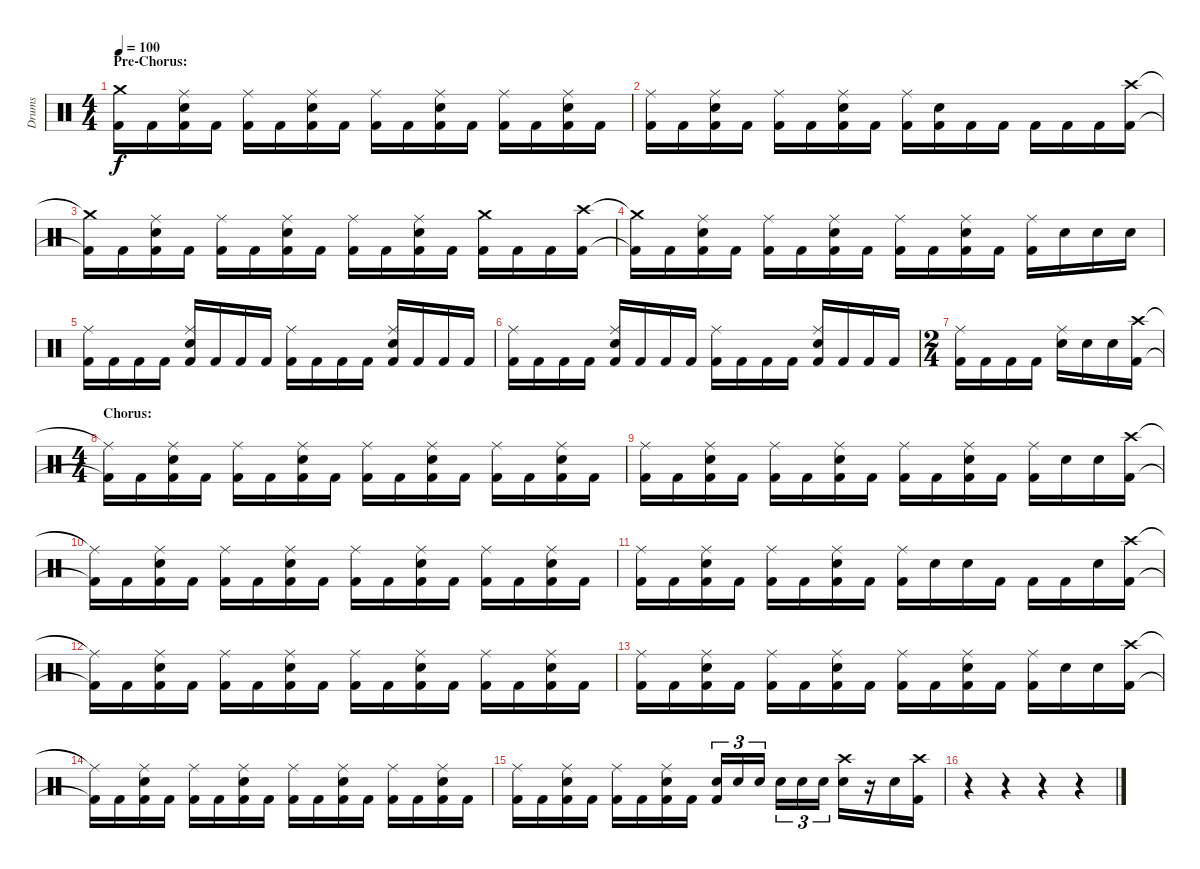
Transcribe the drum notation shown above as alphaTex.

\track ("Drums" "Drums") {instrument percussion}
\staff {score}
\articulation defaults
\ts (4 4)
\section ("" "Pre-Chorus:")
\tempo 100
\clef neutral
\ks c
("Crash medium (hit)" "Kick (hit) 2").16{dy f} "Kick (hit) 2".16 ("Ride (middle)" "Electric Snare (hit)" "Kick (hit) 2").16 "Kick (hit) 2".16 ("Ride (middle)" "Kick (hit) 2").16 "Kick (hit) 2".16 ("Ride (middle)" "Electric Snare (hit)" "Kick (hit) 2").16 "Kick (hit) 2".16 ("Ride (middle)" "Kick (hit) 2").16 "Kick (hit) 2".16 ("Ride (middle)" "Electric Snare (hit)" "Kick (hit) 2").16 "Kick (hit) 2".16 ("Ride (middle)" "Kick (hit) 2").16 "Kick (hit) 2".16 ("Ride (middle)" "Electric Snare (hit)" "Kick (hit) 2").16 "Kick (hit) 2".16 |
("Ride (middle)" "Kick (hit) 2").16 "Kick (hit) 2".16 ("Ride (middle)" "Electric Snare (hit)" "Kick (hit) 2").16 "Kick (hit) 2".16 ("Ride (middle)" "Kick (hit) 2").16 "Kick (hit) 2".16 ("Ride (middle)" "Electric Snare (hit)" "Kick (hit) 2").16 "Kick (hit) 2".16 ("Ride (middle)" "Kick (hit) 2").16 ("Electric Snare (hit)" "Kick (hit) 2").16 "Kick (hit) 2".16 "Kick (hit) 2".16 "Kick (hit) 2".16 "Kick (hit) 2".16 "Kick (hit) 2".16 ("Crash high (hit)" "Kick (hit) 2").16 |
("Crash medium (hit)"{t} "Kick (hit) 2"{t}).16 "Kick (hit) 2".16 ("Ride (middle)" "Electric Snare (hit)" "Kick (hit) 2").16 "Kick (hit) 2".16 ("Ride (middle)" "Kick (hit) 2").16 "Kick (hit) 2".16 ("Ride (middle)" "Electric Snare (hit)" "Kick (hit) 2").16 "Kick (hit) 2".16 ("Ride (middle)" "Kick (hit) 2").16 "Kick (hit) 2".16 ("Ride (middle)" "Electric Snare (hit)" "Kick (hit) 2").16 "Kick (hit) 2".16 ("Crash medium (hit)" "Kick (hit) 2").16 "Kick (hit) 2".16 "Kick (hit) 2".16 ("Crash high (hit)" "Kick (hit) 2").16 |
("Crash medium (hit)"{t} "Kick (hit) 2"{t}).16 "Kick (hit) 2".16 ("Ride (middle)" "Electric Snare (hit)" "Kick (hit) 2").16 "Kick (hit) 2".16 ("Ride (middle)" "Kick (hit) 2").16 "Kick (hit) 2".16 ("Ride (middle)" "Electric Snare (hit)" "Kick (hit) 2").16 "Kick (hit) 2".16 ("Ride (middle)" "Kick (hit) 2").16 "Kick (hit) 2".16 ("Ride (middle)" "Electric Snare (hit)" "Kick (hit) 2").16 "Kick (hit) 2".16 ("Ride (middle)" "Kick (hit) 2").16 "Electric Snare (hit)".16 "Electric Snare (hit)".16 "Electric Snare (hit)".16 |
("Ride (middle)" "Kick (hit) 2").16 "Kick (hit) 2".16 "Kick (hit) 2".16 "Kick (hit) 2".16 ("Ride (middle)" "Electric Snare (hit)" "Kick (hit) 2").16 "Kick (hit) 2".16 "Kick (hit) 2".16 "Kick (hit) 2".16 ("Ride (middle)" "Kick (hit) 2").16 "Kick (hit) 2".16 "Kick (hit) 2".16 "Kick (hit) 2".16 ("Ride (middle)" "Electric Snare (hit)" "Kick (hit) 2").16 "Kick (hit) 2".16 "Kick (hit) 2".16 "Kick (hit) 2".16 |
("Ride (middle)" "Kick (hit) 2").16 "Kick (hit) 2".16 "Kick (hit) 2".16 "Kick (hit) 2".16 ("Ride (middle)" "Electric Snare (hit)" "Kick (hit) 2").16 "Kick (hit) 2".16 "Kick (hit) 2".16 "Kick (hit) 2".16 ("Ride (middle)" "Kick (hit) 2").16 "Kick (hit) 2".16 "Kick (hit) 2".16 "Kick (hit) 2".16 ("Ride (middle)" "Electric Snare (hit)" "Kick (hit) 2").16 "Kick (hit) 2".16 "Kick (hit) 2".16 "Kick (hit) 2".16 |
\ts (2 4)
("Ride (middle)" "Kick (hit) 2").16 "Kick (hit) 2".16 "Kick (hit) 2".16 "Kick (hit) 2".16 ("Ride (middle)" "Electric Snare (hit)").16 "Electric Snare (hit)".16 "Electric Snare (hit)".16 ("Crash high (hit)" "Kick (hit) 2").16 |
\ts (4 4)
\section ("" "Chorus:")
("Ride (middle)"{t} "Kick (hit) 2"{t}).16 "Kick (hit) 2".16 ("Ride (middle)" "Electric Snare (hit)" "Kick (hit) 2").16 "Kick (hit) 2".16 ("Ride (middle)" "Kick (hit) 2").16 "Kick (hit) 2".16 ("Ride (middle)" "Electric Snare (hit)" "Kick (hit) 2").16 "Kick (hit) 2".16 ("Ride (middle)" "Kick (hit) 2").16 "Kick (hit) 2".16 ("Ride (middle)" "Electric Snare (hit)" "Kick (hit) 2").16 "Kick (hit) 2".16 ("Ride (middle)" "Kick (hit) 2").16 "Kick (hit) 2".16 ("Ride (middle)" "Electric Snare (hit)" "Kick (hit) 2").16 "Kick (hit) 2".16 |
("Ride (middle)" "Kick (hit) 2").16 "Kick (hit) 2".16 ("Ride (middle)" "Electric Snare (hit)" "Kick (hit) 2").16 "Kick (hit) 2".16 ("Ride (middle)" "Kick (hit) 2").16 "Kick (hit) 2".16 ("Ride (middle)" "Electric Snare (hit)" "Kick (hit) 2").16 "Kick (hit) 2".16 ("Ride (middle)" "Kick (hit) 2").16 "Kick (hit) 2".16 ("Ride (middle)" "Electric Snare (hit)" "Kick (hit) 2").16 "Kick (hit) 2".16 ("Ride (middle)" "Kick (hit) 2").16 "Electric Snare (hit)".16 "Electric Snare (hit)".16 ("Crash high (hit)" "Kick (hit) 2").16 |
("Ride (middle)"{t} "Kick (hit) 2"{t}).16 "Kick (hit) 2".16 ("Ride (middle)" "Electric Snare (hit)" "Kick (hit) 2").16 "Kick (hit) 2".16 ("Ride (middle)" "Kick (hit) 2").16 "Kick (hit) 2".16 ("Ride (middle)" "Electric Snare (hit)" "Kick (hit) 2").16 "Kick (hit) 2".16 ("Ride (middle)" "Kick (hit) 2").16 "Kick (hit) 2".16 ("Ride (middle)" "Electric Snare (hit)" "Kick (hit) 2").16 "Kick (hit) 2".16 ("Ride (middle)" "Kick (hit) 2").16 "Kick (hit) 2".16 ("Ride (middle)" "Electric Snare (hit)" "Kick (hit) 2").16 "Kick (hit) 2".16 |
("Ride (middle)" "Kick (hit) 2").16 "Kick (hit) 2".16 ("Ride (middle)" "Electric Snare (hit)" "Kick (hit) 2").16 "Kick (hit) 2".16 ("Ride (middle)" "Kick (hit) 2").16 "Kick (hit) 2".16 ("Ride (middle)" "Electric Snare (hit)" "Kick (hit) 2").16 "Kick (hit) 2".16 ("Ride (middle)" "Kick (hit) 2").16 "Electric Snare (hit)".16 "Electric Snare (hit)".16 "Kick (hit) 2".16 "Kick (hit) 2".16 "Kick (hit) 2".16 "Electric Snare (hit)".16 ("Crash high (hit)" "Kick (hit) 2").16 |
("Ride (middle)"{t} "Kick (hit) 2"{t}).16 "Kick (hit) 2".16 ("Ride (middle)" "Electric Snare (hit)" "Kick (hit) 2").16 "Kick (hit) 2".16 ("Ride (middle)" "Kick (hit) 2").16 "Kick (hit) 2".16 ("Ride (middle)" "Electric Snare (hit)" "Kick (hit) 2").16 "Kick (hit) 2".16 ("Ride (middle)" "Kick (hit) 2").16 "Kick (hit) 2".16 ("Ride (middle)" "Electric Snare (hit)" "Kick (hit) 2").16 "Kick (hit) 2".16 ("Ride (middle)" "Kick (hit) 2").16 "Kick (hit) 2".16 ("Ride (middle)" "Electric Snare (hit)" "Kick (hit) 2").16 "Kick (hit) 2".16 |
("Ride (middle)" "Kick (hit) 2").16 "Kick (hit) 2".16 ("Ride (middle)" "Electric Snare (hit)" "Kick (hit) 2").16 "Kick (hit) 2".16 ("Ride (middle)" "Kick (hit) 2").16 "Kick (hit) 2".16 ("Ride (middle)" "Electric Snare (hit)" "Kick (hit) 2").16 "Kick (hit) 2".16 ("Ride (middle)" "Kick (hit) 2").16 "Kick (hit) 2".16 ("Ride (middle)" "Electric Snare (hit)" "Kick (hit) 2").16 "Kick (hit) 2".16 ("Ride (middle)" "Kick (hit) 2").16 "Electric Snare (hit)".16 "Electric Snare (hit)".16 ("Crash high (hit)" "Kick (hit) 2").16 |
("Ride (middle)"{t} "Kick (hit) 2"{t}).16 "Kick (hit) 2".16 ("Ride (middle)" "Electric Snare (hit)" "Kick (hit) 2").16 "Kick (hit) 2".16 ("Ride (middle)" "Kick (hit) 2").16 "Kick (hit) 2".16 ("Ride (middle)" "Electric Snare (hit)" "Kick (hit) 2").16 "Kick (hit) 2".16 ("Ride (middle)" "Kick (hit) 2").16 "Kick (hit) 2".16 ("Ride (middle)" "Electric Snare (hit)" "Kick (hit) 2").16 "Kick (hit) 2".16 ("Ride (middle)" "Kick (hit) 2").16 "Kick (hit) 2".16 ("Ride (middle)" "Electric Snare (hit)" "Kick (hit) 2").16 "Kick (hit) 2".16 |
("Ride (middle)" "Kick (hit) 2").16 "Kick (hit) 2".16 ("Ride (middle)" "Electric Snare (hit)" "Kick (hit) 2").16 "Kick (hit) 2".16 ("Ride (middle)" "Kick (hit) 2").16 "Kick (hit) 2".16 ("Ride (middle)" "Electric Snare (hit)" "Kick (hit) 2").16 "Kick (hit) 2".16 ("Electric Snare (hit)" "Kick (hit) 2").16{tu (3 2)} "Electric Snare (hit)".16{tu (3 2)} "Electric Snare (hit)".16{tu (3 2)} "Electric Snare (hit)".16{tu (3 2)} "Electric Snare (hit)".16{tu (3 2)} "Electric Snare (hit)".16{tu (3 2)} ("Crash high (hit)" "Electric Snare (hit)").16 r.16 "Electric Snare (hit)".16 ("Crash high (hit)" "Kick (hit) 2").16 |
r.4 r.4 r.4 r.4
